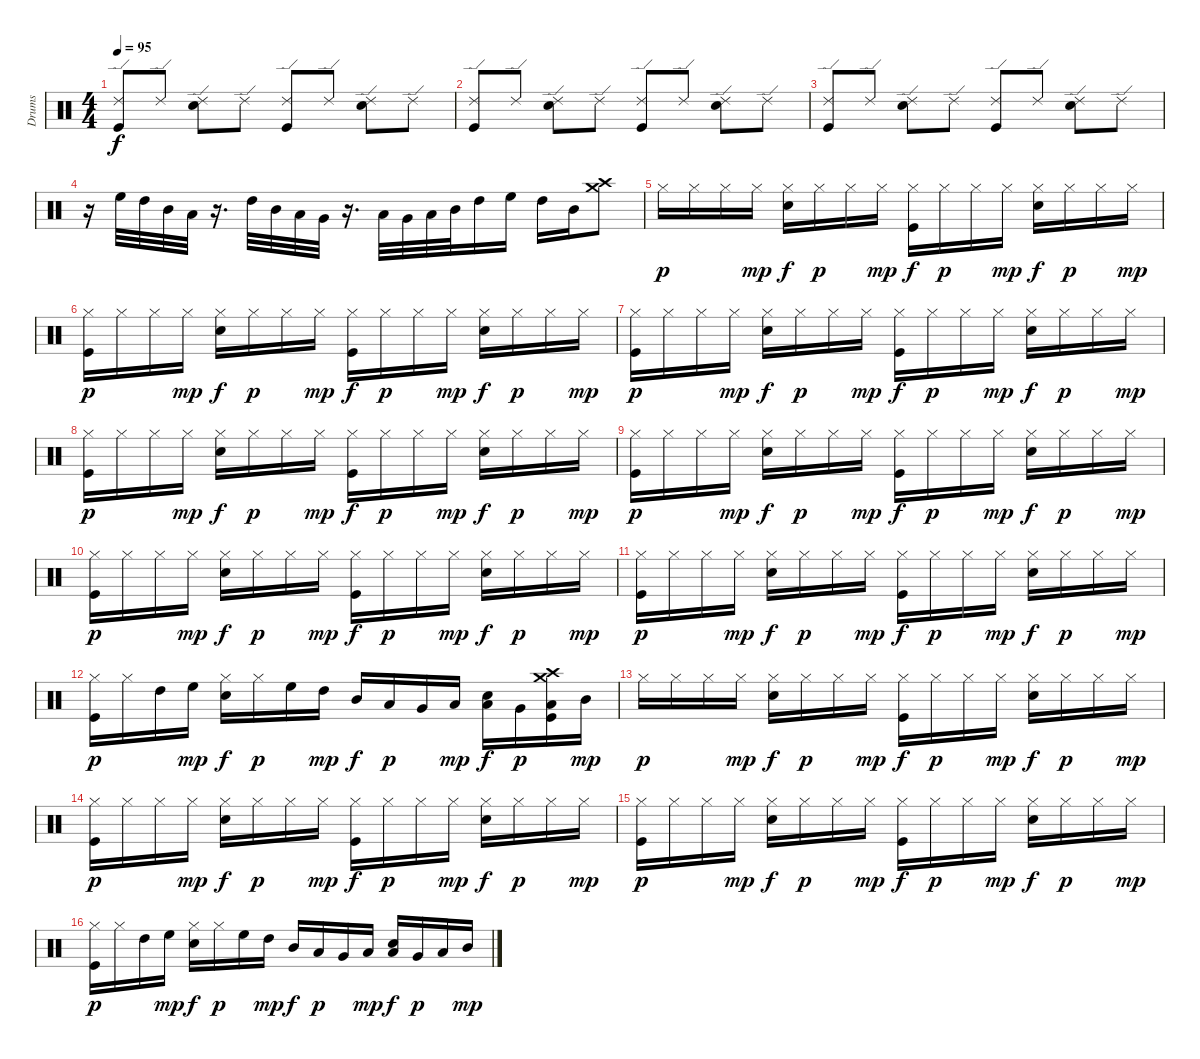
\track ("Drums" "Drums") {instrument percussion}
\staff {score}
\articulation defaults
\ts (4 4)
\tempo 95
\clef neutral
\ks c
("Ride (edge) 2" "Kick (hit)").8{dy f} "Ride (edge) 2".8 ("Ride (edge) 2" "Electric Snare (hit)").8 "Ride (edge) 2".8 ("Ride (edge) 2" "Kick (hit)").8 "Ride (edge) 2".8 ("Ride (edge) 2" "Electric Snare (hit)").8 "Ride (edge) 2".8 |
("Ride (edge) 2" "Kick (hit)").8 "Ride (edge) 2".8 ("Ride (edge) 2" "Electric Snare (hit)").8 "Ride (edge) 2".8 ("Ride (edge) 2" "Kick (hit)").8 "Ride (edge) 2".8 ("Ride (edge) 2" "Electric Snare (hit)").8 "Ride (edge) 2".8 |
("Ride (edge) 2" "Kick (hit)").8 "Ride (edge) 2".8 ("Ride (edge) 2" "Electric Snare (hit)").8 "Ride (edge) 2".8 ("Ride (edge) 2" "Kick (hit)").8 "Ride (edge) 2".8 ("Ride (edge) 2" "Electric Snare (hit)").8 "Ride (edge) 2".8 |
r.16 "High Floor Tom (hit)".32 "High Tom (hit)".32 "Mid Tom (hit)".32 "Low Tom (hit)".32 r.16{d} "High Tom (hit)".32 "Mid Tom (hit)".32 "Low Tom (hit)".32 "Very Low Tom (hit)".32 r.16{d} "Low Floor Tom (hit)".32 "Very Low Tom (hit)".32 "Low Tom (hit)".32 "Mid Tom (hit)".32 "High Tom (hit)".16 "High Floor Tom (hit)".16 "High Tom (hit)".16 "Mid Tom (hit)".16 ("Crash medium (hit)" "Crash high (hit)").8 |
"Hi-Hat (closed)".16{dy p} "Hi-Hat (closed)".16 "Hi-Hat (closed)".16 "Hi-Hat (closed)".16{dy mp} ("Hi-Hat (closed)" "Snare (hit) 2").16{dy f} "Hi-Hat (closed)".16{dy p} "Hi-Hat (closed)".16 "Hi-Hat (closed)".16{dy mp} ("Hi-Hat (closed)" "Kick (hit)").16{dy f} "Hi-Hat (closed)".16{dy p} "Hi-Hat (closed)".16 "Hi-Hat (closed)".16{dy mp} ("Hi-Hat (closed)" "Snare (hit) 2").16{dy f} "Hi-Hat (closed)".16{dy p} "Hi-Hat (closed)".16 "Hi-Hat (closed)".16{dy mp} |
("Hi-Hat (closed)" "Kick (hit)").16{dy p} "Hi-Hat (closed)".16 "Hi-Hat (closed)".16 "Hi-Hat (closed)".16{dy mp} ("Hi-Hat (closed)" "Snare (hit) 2").16{dy f} "Hi-Hat (closed)".16{dy p} "Hi-Hat (closed)".16 "Hi-Hat (closed)".16{dy mp} ("Hi-Hat (closed)" "Kick (hit)").16{dy f} "Hi-Hat (closed)".16{dy p} "Hi-Hat (closed)".16 "Hi-Hat (closed)".16{dy mp} ("Hi-Hat (closed)" "Snare (hit) 2").16{dy f} "Hi-Hat (closed)".16{dy p} "Hi-Hat (closed)".16 "Hi-Hat (closed)".16{dy mp} |
("Hi-Hat (closed)" "Kick (hit)").16{dy p} "Hi-Hat (closed)".16 "Hi-Hat (closed)".16 "Hi-Hat (closed)".16{dy mp} ("Hi-Hat (closed)" "Snare (hit) 2").16{dy f} "Hi-Hat (closed)".16{dy p} "Hi-Hat (closed)".16 "Hi-Hat (closed)".16{dy mp} ("Hi-Hat (closed)" "Kick (hit)").16{dy f} "Hi-Hat (closed)".16{dy p} "Hi-Hat (closed)".16 "Hi-Hat (closed)".16{dy mp} ("Hi-Hat (closed)" "Snare (hit) 2").16{dy f} "Hi-Hat (closed)".16{dy p} "Hi-Hat (closed)".16 "Hi-Hat (closed)".16{dy mp} |
("Hi-Hat (closed)" "Kick (hit)").16{dy p} "Hi-Hat (closed)".16 "Hi-Hat (closed)".16 "Hi-Hat (closed)".16{dy mp} ("Hi-Hat (closed)" "Snare (hit) 2").16{dy f} "Hi-Hat (closed)".16{dy p} "Hi-Hat (closed)".16 "Hi-Hat (closed)".16{dy mp} ("Hi-Hat (closed)" "Kick (hit)").16{dy f} "Hi-Hat (closed)".16{dy p} "Hi-Hat (closed)".16 "Hi-Hat (closed)".16{dy mp} ("Hi-Hat (closed)" "Snare (hit) 2").16{dy f} "Hi-Hat (closed)".16{dy p} "Hi-Hat (closed)".16 "Hi-Hat (closed)".16{dy mp} |
("Hi-Hat (closed)" "Kick (hit)").16{dy p} "Hi-Hat (closed)".16 "Hi-Hat (closed)".16 "Hi-Hat (closed)".16{dy mp} ("Hi-Hat (closed)" "Snare (hit) 2").16{dy f} "Hi-Hat (closed)".16{dy p} "Hi-Hat (closed)".16 "Hi-Hat (closed)".16{dy mp} ("Hi-Hat (closed)" "Kick (hit)").16{dy f} "Hi-Hat (closed)".16{dy p} "Hi-Hat (closed)".16 "Hi-Hat (closed)".16{dy mp} ("Hi-Hat (closed)" "Snare (hit) 2").16{dy f} "Hi-Hat (closed)".16{dy p} "Hi-Hat (closed)".16 "Hi-Hat (closed)".16{dy mp} |
("Hi-Hat (closed)" "Kick (hit)").16{dy p} "Hi-Hat (closed)".16 "Hi-Hat (closed)".16 "Hi-Hat (closed)".16{dy mp} ("Hi-Hat (closed)" "Snare (hit) 2").16{dy f} "Hi-Hat (closed)".16{dy p} "Hi-Hat (closed)".16 "Hi-Hat (closed)".16{dy mp} ("Hi-Hat (closed)" "Kick (hit)").16{dy f} "Hi-Hat (closed)".16{dy p} "Hi-Hat (closed)".16 "Hi-Hat (closed)".16{dy mp} ("Hi-Hat (closed)" "Snare (hit) 2").16{dy f} "Hi-Hat (closed)".16{dy p} "Hi-Hat (closed)".16 "Hi-Hat (closed)".16{dy mp} |
("Hi-Hat (closed)" "Kick (hit)").16{dy p} "Hi-Hat (closed)".16 "Hi-Hat (closed)".16 "Hi-Hat (closed)".16{dy mp} ("Hi-Hat (closed)" "Snare (hit) 2").16{dy f} "Hi-Hat (closed)".16{dy p} "Hi-Hat (closed)".16 "Hi-Hat (closed)".16{dy mp} ("Hi-Hat (closed)" "Kick (hit)").16{dy f} "Hi-Hat (closed)".16{dy p} "Hi-Hat (closed)".16 "Hi-Hat (closed)".16{dy mp} ("Hi-Hat (closed)" "Snare (hit) 2").16{dy f} "Hi-Hat (closed)".16{dy p} "Hi-Hat (closed)".16 "Hi-Hat (closed)".16{dy mp} |
("Hi-Hat (closed)" "Kick (hit)").16{dy p} "Hi-Hat (closed)".16 "High Tom (hit)".16 "High Floor Tom (hit)".16{dy mp} ("Hi-Hat (closed)" "Snare (hit) 2").16{dy f} "Hi-Hat (closed)".16{dy p} "High Floor Tom (hit)".16 "High Tom (hit)".16{dy mp} "Mid Tom (hit)".16{dy f} "Low Tom (hit)".16{dy p} "Very Low Tom (hit)".16 "Low Floor Tom (hit)".16{dy mp} ("Low Floor Tom (hit)" "Snare (hit) 2").16{dy f} "Very Low Tom (hit)".16{dy p} ("Low Tom (hit)" "Crash medium (hit)" "Crash high (hit)" "Kick (hit)").16 "Mid Tom (hit)".16{dy mp} |
"Hi-Hat (closed)".16{dy p} "Hi-Hat (closed)".16 "Hi-Hat (closed)".16 "Hi-Hat (closed)".16{dy mp} ("Hi-Hat (closed)" "Snare (hit) 2").16{dy f} "Hi-Hat (closed)".16{dy p} "Hi-Hat (closed)".16 "Hi-Hat (closed)".16{dy mp} ("Hi-Hat (closed)" "Kick (hit)").16{dy f} "Hi-Hat (closed)".16{dy p} "Hi-Hat (closed)".16 "Hi-Hat (closed)".16{dy mp} ("Hi-Hat (closed)" "Snare (hit) 2").16{dy f} "Hi-Hat (closed)".16{dy p} "Hi-Hat (closed)".16 "Hi-Hat (closed)".16{dy mp} |
("Hi-Hat (closed)" "Kick (hit)").16{dy p} "Hi-Hat (closed)".16 "Hi-Hat (closed)".16 "Hi-Hat (closed)".16{dy mp} ("Hi-Hat (closed)" "Snare (hit) 2").16{dy f} "Hi-Hat (closed)".16{dy p} "Hi-Hat (closed)".16 "Hi-Hat (closed)".16{dy mp} ("Hi-Hat (closed)" "Kick (hit)").16{dy f} "Hi-Hat (closed)".16{dy p} "Hi-Hat (closed)".16 "Hi-Hat (closed)".16{dy mp} ("Hi-Hat (closed)" "Snare (hit) 2").16{dy f} "Hi-Hat (closed)".16{dy p} "Hi-Hat (closed)".16 "Hi-Hat (closed)".16{dy mp} |
("Hi-Hat (closed)" "Kick (hit)").16{dy p} "Hi-Hat (closed)".16 "Hi-Hat (closed)".16 "Hi-Hat (closed)".16{dy mp} ("Hi-Hat (closed)" "Snare (hit) 2").16{dy f} "Hi-Hat (closed)".16{dy p} "Hi-Hat (closed)".16 "Hi-Hat (closed)".16{dy mp} ("Hi-Hat (closed)" "Kick (hit)").16{dy f} "Hi-Hat (closed)".16{dy p} "Hi-Hat (closed)".16 "Hi-Hat (closed)".16{dy mp} ("Hi-Hat (closed)" "Snare (hit) 2").16{dy f} "Hi-Hat (closed)".16{dy p} "Hi-Hat (closed)".16 "Hi-Hat (closed)".16{dy mp} |
("Hi-Hat (closed)" "Kick (hit)").16{dy p} "Hi-Hat (closed)".16 "High Tom (hit)".16 "High Floor Tom (hit)".16{dy mp} ("Hi-Hat (closed)" "Snare (hit) 2").16{dy f} "Hi-Hat (closed)".16{dy p} "High Floor Tom (hit)".16 "High Tom (hit)".16{dy mp} "Mid Tom (hit)".16{dy f} "Low Tom (hit)".16{dy p} "Very Low Tom (hit)".16 "Low Floor Tom (hit)".16{dy mp} ("Low Floor Tom (hit)" "Snare (hit) 2").16{dy f} "Very Low Tom (hit)".16{dy p} "Low Tom (hit)".16 "Mid Tom (hit)".16{dy mp}
